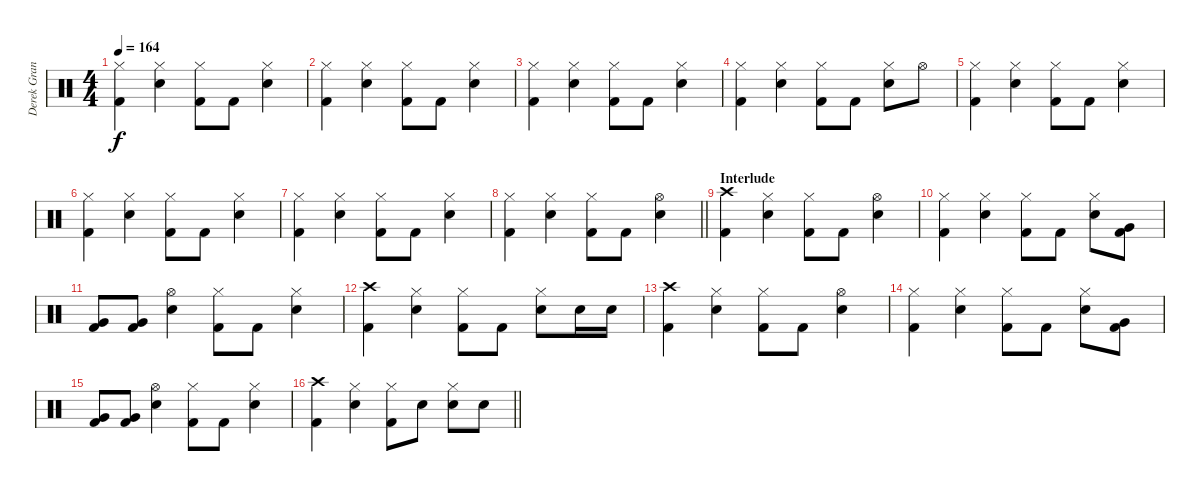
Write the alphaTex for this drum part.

\track ("Derek Grant - Drums" "Derek Gran") {instrument percussion}
\staff {score}
\articulation defaults
\ts (4 4)
\tempo 164
\clef neutral
\ks c
("Hi-Hat (closed)" "Kick (hit) 2").4{dy f} ("Hi-Hat (closed)" "Snare (hit) 2").4 ("Hi-Hat (closed)" "Kick (hit) 2").8 "Kick (hit) 2".8 ("Hi-Hat (closed)" "Snare (hit) 2").4 |
("Hi-Hat (closed)" "Kick (hit) 2").4 ("Hi-Hat (closed)" "Snare (hit) 2").4 ("Hi-Hat (closed)" "Kick (hit) 2").8 "Kick (hit) 2".8 ("Hi-Hat (closed)" "Snare (hit) 2").4 |
("Hi-Hat (closed)" "Kick (hit) 2").4 ("Hi-Hat (closed)" "Snare (hit) 2").4 ("Hi-Hat (closed)" "Kick (hit) 2").8 "Kick (hit) 2".8 ("Hi-Hat (closed)" "Snare (hit) 2").4 |
("Hi-Hat (closed)" "Kick (hit) 2").4 ("Hi-Hat (closed)" "Snare (hit) 2").4 ("Hi-Hat (closed)" "Kick (hit) 2").8 "Kick (hit) 2".8 ("Hi-Hat (closed)" "Snare (hit) 2").8 "Hi-Hat (open)".8 |
("Hi-Hat (closed)" "Kick (hit) 2").4 ("Hi-Hat (closed)" "Snare (hit) 2").4 ("Hi-Hat (closed)" "Kick (hit) 2").8 "Kick (hit) 2".8 ("Hi-Hat (closed)" "Snare (hit) 2").4 |
("Hi-Hat (closed)" "Kick (hit) 2").4 ("Hi-Hat (closed)" "Snare (hit) 2").4 ("Hi-Hat (closed)" "Kick (hit) 2").8 "Kick (hit) 2".8 ("Hi-Hat (closed)" "Snare (hit) 2").4 |
("Hi-Hat (closed)" "Kick (hit) 2").4 ("Hi-Hat (closed)" "Snare (hit) 2").4 ("Hi-Hat (closed)" "Kick (hit) 2").8 "Kick (hit) 2".8 ("Hi-Hat (closed)" "Snare (hit) 2").4 |
\barLineRight lightlight
("Hi-Hat (closed)" "Kick (hit) 2").4 ("Hi-Hat (closed)" "Snare (hit) 2").4 ("Hi-Hat (closed)" "Kick (hit) 2").8 "Kick (hit) 2".8 ("Hi-Hat (open)" "Snare (hit) 2").4 |
\section ("" "Interlude")
("Crash high (hit)" "Kick (hit) 2").4 ("Hi-Hat (closed)" "Snare (hit) 2").4 ("Hi-Hat (closed)" "Kick (hit) 2").8 "Kick (hit) 2".8 ("Snare (hit) 2" "Hi-Hat (open)").4 |
("Kick (hit) 2" "Hi-Hat (closed)").4 ("Hi-Hat (closed)" "Snare (hit) 2").4 ("Kick (hit) 2" "Hi-Hat (closed)").8 "Kick (hit) 2".8 ("Hi-Hat (closed)" "Snare (hit) 2").8 ("Kick (hit) 2" "Very Low Tom (hit)").8 |
("Very Low Tom (hit)" "Kick (hit) 2").8 ("Very Low Tom (hit)" "Kick (hit) 2").8 ("Hi-Hat (open)" "Snare (hit) 2").4 ("Kick (hit) 2" "Hi-Hat (closed)").8 "Kick (hit) 2".8 ("Hi-Hat (closed)" "Snare (hit) 2").4 |
("Crash high (hit)" "Kick (hit) 2").4 ("Hi-Hat (closed)" "Snare (hit) 2").4 ("Hi-Hat (closed)" "Kick (hit) 2").8 "Kick (hit) 2".8 ("Hi-Hat (closed)" "Snare (hit) 2").8 "Snare (hit) 2".16 "Snare (hit) 2".16 |
("Crash high (hit)" "Kick (hit) 2").4 ("Hi-Hat (closed)" "Snare (hit) 2").4 ("Hi-Hat (closed)" "Kick (hit) 2").8 "Kick (hit) 2".8 ("Snare (hit) 2" "Hi-Hat (open)").4 |
("Kick (hit) 2" "Hi-Hat (closed)").4 ("Hi-Hat (closed)" "Snare (hit) 2").4 ("Kick (hit) 2" "Hi-Hat (closed)").8 "Kick (hit) 2".8 ("Hi-Hat (closed)" "Snare (hit) 2").8 ("Kick (hit) 2" "Very Low Tom (hit)").8 |
("Very Low Tom (hit)" "Kick (hit) 2").8 ("Very Low Tom (hit)" "Kick (hit) 2").8 ("Hi-Hat (open)" "Snare (hit) 2").4 ("Kick (hit) 2" "Hi-Hat (closed)").8 "Kick (hit) 2".8 ("Hi-Hat (closed)" "Snare (hit) 2").4 |
\barLineRight lightlight
("Crash high (hit)" "Kick (hit) 2").4 ("Hi-Hat (closed)" "Snare (hit) 2").4 ("Hi-Hat (closed)" "Kick (hit) 2").8 "Snare (hit) 2".8 ("Hi-Hat (closed)" "Snare (hit) 2").8 "Snare (hit) 2".8
